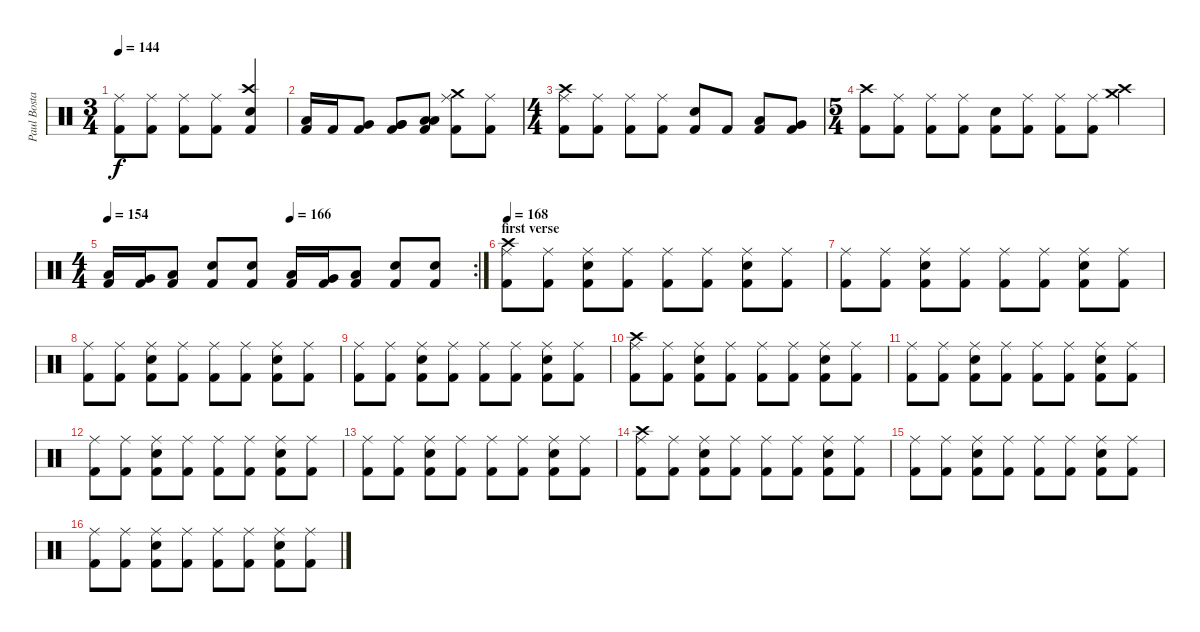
\track ("Paul Bostaph" "Paul Bosta") {instrument percussion}
\staff {score}
\articulation defaults
\ts (3 4)
\tempo 144
\clef neutral
\ks c
("Ride (middle)" "Kick (hit) 2").8{dy f} ("Ride (middle)" "Kick (hit) 2").8 ("Ride (middle)" "Kick (hit) 2").8 ("Ride (middle)" "Kick (hit) 2").8 ("Crash high (hit)" "Snare (hit) 2" "Kick (hit) 2").4 |
("Low Tom (hit)" "Kick (hit) 2").16 "Kick (hit) 2".16 ("Very Low Tom (hit)" "Kick (hit) 2").8 ("Very Low Tom (hit)" "Very Low Tom (hit)" "Kick (hit) 2").8 ("Low Tom (hit)" "Low Tom (hit)" "Kick (hit) 2").8 ("Crash medium (hit)" "Ride (middle)" "Kick (hit) 2").8 ("Ride (middle)" "Kick (hit) 2").8 |
\ts (4 4)
("Crash high (hit)" "Ride (middle)" "Kick (hit) 2").8 ("Ride (middle)" "Kick (hit) 2").8 ("Ride (middle)" "Kick (hit) 2").8 ("Ride (middle)" "Kick (hit) 2").8 ("Snare (hit) 2" "Kick (hit) 2").8 "Kick (hit) 2".8 ("Low Tom (hit)" "Kick (hit) 2").8 ("Very Low Tom (hit)" "Kick (hit) 2").8 |
\ts (5 4)
("Crash high (hit)" "Kick (hit) 2").8 ("Ride (middle)" "Kick (hit) 2").8 ("Ride (middle)" "Kick (hit) 2").8 ("Ride (middle)" "Kick (hit) 2").8 ("Snare (hit) 2" "Kick (hit) 2").8 ("Ride (middle)" "Kick (hit) 2").8 ("Ride (middle)" "Kick (hit) 2").8 ("Ride (middle)" "Kick (hit) 2").8 ("Crash medium (hit)" "Crash high (hit)").4 |
\rc 2
\ts (4 4)
\tempo 154
\tempo (166 0.5)
("Low Tom (hit)" "Kick (hit) 2").16 ("Very Low Tom (hit)" "Kick (hit) 2").16 ("Low Floor Tom (hit)" "Kick (hit) 2").8 ("Snare (hit) 2" "Kick (hit) 2").8 ("Snare (hit) 2" "Kick (hit) 2").8 ("Low Tom (hit)" "Kick (hit) 2").16 ("Very Low Tom (hit)" "Kick (hit) 2").16 ("Low Floor Tom (hit)" "Kick (hit) 2").8 ("Snare (hit) 2" "Kick (hit) 2").8 ("Snare (hit) 2" "Kick (hit) 2").8 |
\section ("" "first verse")
\tempo 168
("Crash high (hit)" "Ride (middle)" "Kick (hit) 2").8 ("Ride (middle)" "Kick (hit) 2").8 ("Ride (middle)" "Snare (hit) 2" "Kick (hit) 2").8 ("Ride (middle)" "Kick (hit) 2").8 ("Ride (middle)" "Kick (hit) 2").8 ("Ride (middle)" "Kick (hit) 2").8 ("Ride (middle)" "Snare (hit) 2" "Kick (hit) 2").8 ("Ride (middle)" "Kick (hit) 2").8 |
("Ride (middle)" "Kick (hit) 2").8 ("Ride (middle)" "Kick (hit) 2").8 ("Ride (middle)" "Snare (hit) 2" "Kick (hit) 2").8 ("Ride (middle)" "Kick (hit) 2").8 ("Ride (middle)" "Kick (hit) 2").8 ("Ride (middle)" "Kick (hit) 2").8 ("Ride (middle)" "Snare (hit) 2" "Kick (hit) 2").8 ("Ride (middle)" "Kick (hit) 2").8 |
("Ride (middle)" "Kick (hit) 2").8 ("Ride (middle)" "Kick (hit) 2").8 ("Ride (middle)" "Snare (hit) 2" "Kick (hit) 2").8 ("Ride (middle)" "Kick (hit) 2").8 ("Ride (middle)" "Kick (hit) 2").8 ("Ride (middle)" "Kick (hit) 2").8 ("Ride (middle)" "Snare (hit) 2" "Kick (hit) 2").8 ("Ride (middle)" "Kick (hit) 2").8 |
("Ride (middle)" "Kick (hit) 2").8 ("Ride (middle)" "Kick (hit) 2").8 ("Ride (middle)" "Snare (hit) 2" "Kick (hit) 2").8 ("Ride (middle)" "Kick (hit) 2").8 ("Ride (middle)" "Kick (hit) 2").8 ("Ride (middle)" "Kick (hit) 2").8 ("Ride (middle)" "Snare (hit) 2" "Kick (hit) 2").8 ("Ride (middle)" "Kick (hit) 2").8 |
("Crash high (hit)" "Ride (middle)" "Kick (hit) 2").8 ("Ride (middle)" "Kick (hit) 2").8 ("Ride (middle)" "Snare (hit) 2" "Kick (hit) 2").8 ("Ride (middle)" "Kick (hit) 2").8 ("Ride (middle)" "Kick (hit) 2").8 ("Ride (middle)" "Kick (hit) 2").8 ("Ride (middle)" "Snare (hit) 2" "Kick (hit) 2").8 ("Ride (middle)" "Kick (hit) 2").8 |
("Ride (middle)" "Kick (hit) 2").8 ("Ride (middle)" "Kick (hit) 2").8 ("Ride (middle)" "Snare (hit) 2" "Kick (hit) 2").8 ("Ride (middle)" "Kick (hit) 2").8 ("Ride (middle)" "Kick (hit) 2").8 ("Ride (middle)" "Kick (hit) 2").8 ("Ride (middle)" "Snare (hit) 2" "Kick (hit) 2").8 ("Ride (middle)" "Kick (hit) 2").8 |
("Ride (middle)" "Kick (hit) 2").8 ("Ride (middle)" "Kick (hit) 2").8 ("Ride (middle)" "Snare (hit) 2" "Kick (hit) 2").8 ("Ride (middle)" "Kick (hit) 2").8 ("Ride (middle)" "Kick (hit) 2").8 ("Ride (middle)" "Kick (hit) 2").8 ("Ride (middle)" "Snare (hit) 2" "Kick (hit) 2").8 ("Ride (middle)" "Kick (hit) 2").8 |
("Ride (middle)" "Kick (hit) 2").8 ("Ride (middle)" "Kick (hit) 2").8 ("Ride (middle)" "Snare (hit) 2" "Kick (hit) 2").8 ("Ride (middle)" "Kick (hit) 2").8 ("Ride (middle)" "Kick (hit) 2").8 ("Ride (middle)" "Kick (hit) 2").8 ("Ride (middle)" "Snare (hit) 2" "Kick (hit) 2").8 ("Ride (middle)" "Kick (hit) 2").8 |
("Crash high (hit)" "Ride (middle)" "Kick (hit) 2").8 ("Ride (middle)" "Kick (hit) 2").8 ("Ride (middle)" "Snare (hit) 2" "Kick (hit) 2").8 ("Ride (middle)" "Kick (hit) 2").8 ("Ride (middle)" "Kick (hit) 2").8 ("Ride (middle)" "Kick (hit) 2").8 ("Ride (middle)" "Snare (hit) 2" "Kick (hit) 2").8 ("Ride (middle)" "Kick (hit) 2").8 |
("Ride (middle)" "Kick (hit) 2").8 ("Ride (middle)" "Kick (hit) 2").8 ("Ride (middle)" "Snare (hit) 2" "Kick (hit) 2").8 ("Ride (middle)" "Kick (hit) 2").8 ("Ride (middle)" "Kick (hit) 2").8 ("Ride (middle)" "Kick (hit) 2").8 ("Ride (middle)" "Snare (hit) 2" "Kick (hit) 2").8 ("Ride (middle)" "Kick (hit) 2").8 |
("Ride (middle)" "Kick (hit) 2").8 ("Ride (middle)" "Kick (hit) 2").8 ("Ride (middle)" "Snare (hit) 2" "Kick (hit) 2").8 ("Ride (middle)" "Kick (hit) 2").8 ("Ride (middle)" "Kick (hit) 2").8 ("Ride (middle)" "Kick (hit) 2").8 ("Ride (middle)" "Snare (hit) 2" "Kick (hit) 2").8 ("Ride (middle)" "Kick (hit) 2").8
